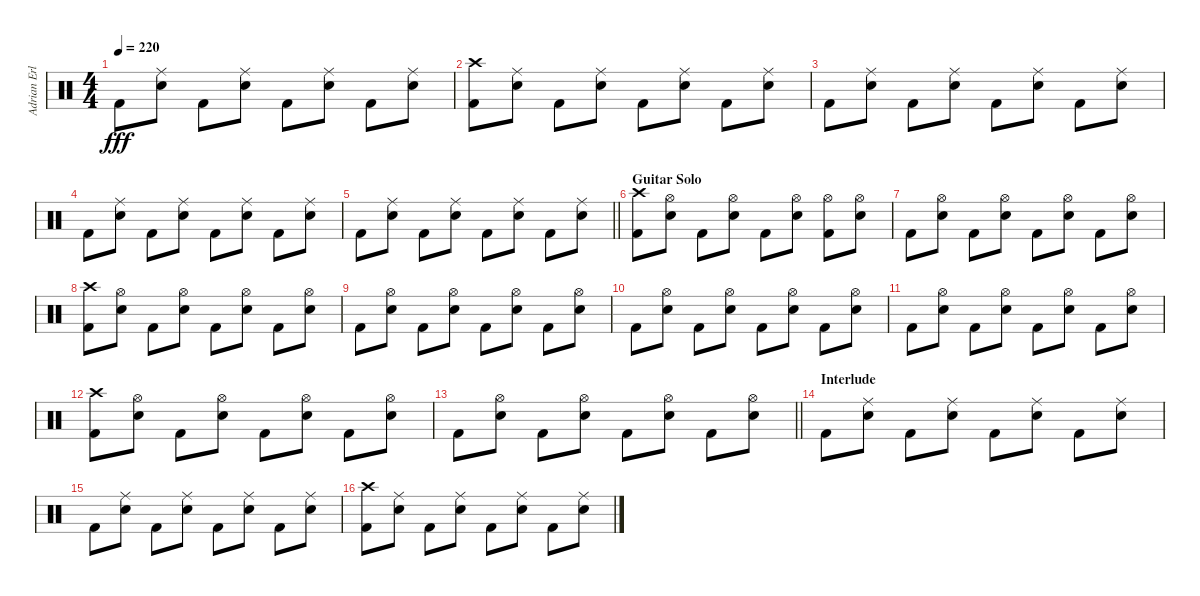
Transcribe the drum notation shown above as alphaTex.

\track ("Adrian Erlandsson" "Adrian Erl") {instrument percussion}
\staff {score}
\articulation defaults
\ts (4 4)
\tempo 220
\clef neutral
\ks c "Kick (hit) 2".8{dy fff}
("Ride (middle)" "Electric Snare (hit)").8 "Kick (hit) 2".8 ("Ride (middle)" "Electric Snare (hit)").8 "Kick (hit) 2".8 ("Ride (middle)" "Electric Snare (hit)").8 "Kick (hit) 2".8 ("Ride (middle)" "Electric Snare (hit)").8 |
("Crash high (hit)" "Kick (hit) 2").8 ("Ride (middle)" "Electric Snare (hit)").8 "Kick (hit) 2".8 ("Ride (middle)" "Electric Snare (hit)").8 "Kick (hit) 2".8 ("Ride (middle)" "Electric Snare (hit)").8 "Kick (hit) 2".8 ("Ride (middle)" "Electric Snare (hit)").8 |
"Kick (hit) 2".8 ("Ride (middle)" "Electric Snare (hit)").8 "Kick (hit) 2".8 ("Ride (middle)" "Electric Snare (hit)").8 "Kick (hit) 2".8 ("Ride (middle)" "Electric Snare (hit)").8 "Kick (hit) 2".8 ("Ride (middle)" "Electric Snare (hit)").8 |
"Kick (hit) 2".8 ("Ride (middle)" "Electric Snare (hit)").8 "Kick (hit) 2".8 ("Ride (middle)" "Electric Snare (hit)").8 "Kick (hit) 2".8 ("Ride (middle)" "Electric Snare (hit)").8 "Kick (hit) 2".8 ("Ride (middle)" "Electric Snare (hit)").8 |
\barLineRight lightlight "Kick (hit) 2".8
("Ride (middle)" "Electric Snare (hit)").8 "Kick (hit) 2".8 ("Ride (middle)" "Electric Snare (hit)").8 "Kick (hit) 2".8 ("Ride (middle)" "Electric Snare (hit)").8 "Kick (hit) 2".8 ("Ride (middle)" "Electric Snare (hit)").8 |
\section ("" "Guitar Solo")
("Crash high (hit)" "Kick (hit) 2").8 ("Hi-Hat (open)" "Electric Snare (hit)").8 "Kick (hit) 2".8 ("Hi-Hat (open)" "Electric Snare (hit)").8 "Kick (hit) 2".8 ("Hi-Hat (open)" "Electric Snare (hit)").8 ("Hi-Hat (open)" "Kick (hit) 2").8 ("Hi-Hat (open)" "Electric Snare (hit)").8 |
"Kick (hit) 2".8 ("Hi-Hat (open)" "Electric Snare (hit)").8 "Kick (hit) 2".8 ("Hi-Hat (open)" "Electric Snare (hit)").8 "Kick (hit) 2".8 ("Hi-Hat (open)" "Electric Snare (hit)").8 "Kick (hit) 2".8 ("Hi-Hat (open)" "Electric Snare (hit)").8 |
("Crash high (hit)" "Kick (hit) 2").8 ("Hi-Hat (open)" "Electric Snare (hit)").8 "Kick (hit) 2".8 ("Hi-Hat (open)" "Electric Snare (hit)").8 "Kick (hit) 2".8 ("Hi-Hat (open)" "Electric Snare (hit)").8 "Kick (hit) 2".8 ("Hi-Hat (open)" "Electric Snare (hit)").8 |
"Kick (hit) 2".8 ("Hi-Hat (open)" "Electric Snare (hit)").8 "Kick (hit) 2".8 ("Hi-Hat (open)" "Electric Snare (hit)").8 "Kick (hit) 2".8 ("Hi-Hat (open)" "Electric Snare (hit)").8 "Kick (hit) 2".8 ("Hi-Hat (open)" "Electric Snare (hit)").8 |
"Kick (hit) 2".8 ("Hi-Hat (open)" "Electric Snare (hit)").8 "Kick (hit) 2".8 ("Hi-Hat (open)" "Electric Snare (hit)").8 "Kick (hit) 2".8 ("Hi-Hat (open)" "Electric Snare (hit)").8 "Kick (hit) 2".8 ("Hi-Hat (open)" "Electric Snare (hit)").8 |
"Kick (hit) 2".8 ("Hi-Hat (open)" "Electric Snare (hit)").8 "Kick (hit) 2".8 ("Hi-Hat (open)" "Electric Snare (hit)").8 "Kick (hit) 2".8 ("Hi-Hat (open)" "Electric Snare (hit)").8 "Kick (hit) 2".8 ("Hi-Hat (open)" "Electric Snare (hit)").8 |
("Crash high (hit)" "Kick (hit) 2").8 ("Hi-Hat (open)" "Electric Snare (hit)").8 "Kick (hit) 2".8 ("Hi-Hat (open)" "Electric Snare (hit)").8 "Kick (hit) 2".8 ("Hi-Hat (open)" "Electric Snare (hit)").8 "Kick (hit) 2".8 ("Hi-Hat (open)" "Electric Snare (hit)").8 |
\barLineRight lightlight "Kick (hit) 2".8
("Hi-Hat (open)" "Electric Snare (hit)").8 "Kick (hit) 2".8 ("Hi-Hat (open)" "Electric Snare (hit)").8 "Kick (hit) 2".8 ("Hi-Hat (open)" "Electric Snare (hit)").8 "Kick (hit) 2".8 ("Hi-Hat (open)" "Electric Snare (hit)").8 |
\section ("" "Interlude")
"Kick (hit) 2".8 ("Ride (middle)" "Electric Snare (hit)").8 "Kick (hit) 2".8 ("Ride (middle)" "Electric Snare (hit)").8 "Kick (hit) 2".8 ("Ride (middle)" "Electric Snare (hit)").8 "Kick (hit) 2".8 ("Ride (middle)" "Electric Snare (hit)").8 |
"Kick (hit) 2".8 ("Ride (middle)" "Electric Snare (hit)").8 "Kick (hit) 2".8 ("Ride (middle)" "Electric Snare (hit)").8 "Kick (hit) 2".8 ("Ride (middle)" "Electric Snare (hit)").8 "Kick (hit) 2".8 ("Ride (middle)" "Electric Snare (hit)").8 |
("Crash high (hit)" "Kick (hit) 2").8 ("Ride (middle)" "Electric Snare (hit)").8 "Kick (hit) 2".8 ("Ride (middle)" "Electric Snare (hit)").8 "Kick (hit) 2".8 ("Ride (middle)" "Electric Snare (hit)").8 "Kick (hit) 2".8 ("Ride (middle)" "Electric Snare (hit)").8
